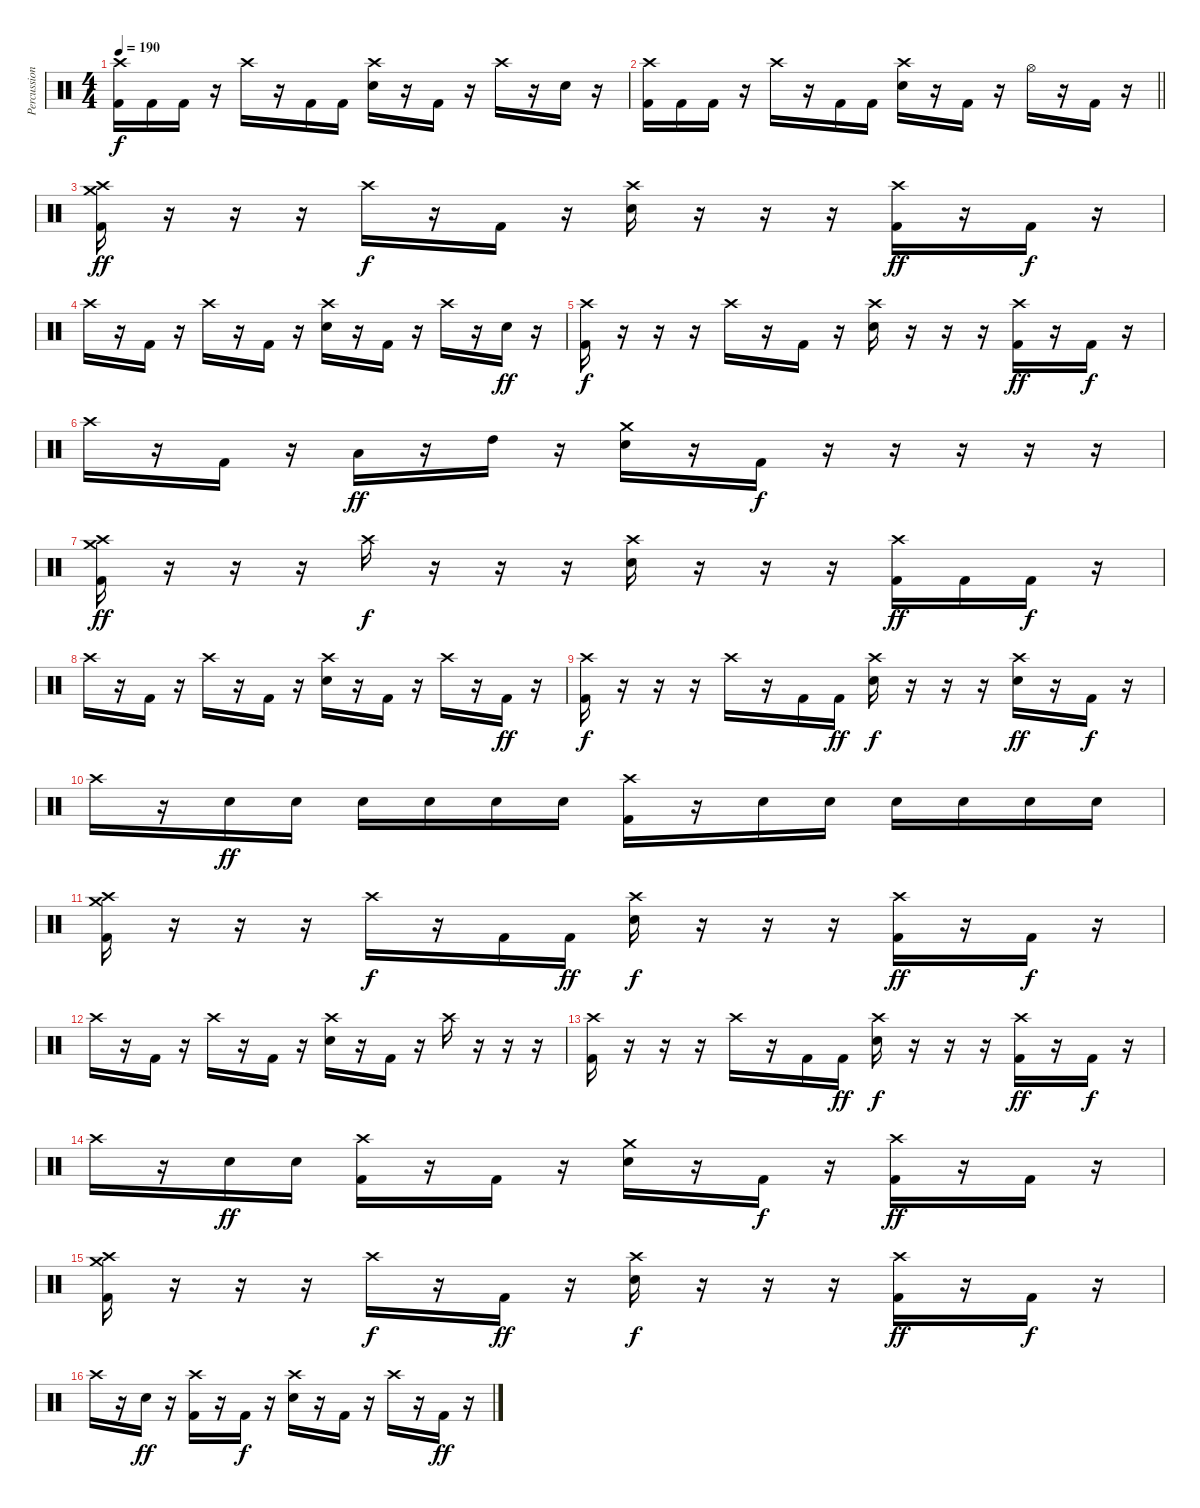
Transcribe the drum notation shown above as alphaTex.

\track ("Percussion" "Percussion") {instrument percussion}
\staff {score}
\articulation defaults
\ts (4 4)
\tempo 190
\clef neutral
\ks c
("Crash high (hit)" "Kick (hit) 2").16{dy f} "Kick (hit) 2".16 "Kick (hit) 2".16 r.16 "Crash high (hit)".16 r.16 "Kick (hit) 2".16 "Kick (hit) 2".16 ("Crash high (hit)" "Snare (hit) 2").16 r.16 "Kick (hit) 2".16 r.16 "Crash high (hit)".16 r.16 "Snare (hit) 2".16 r.16 |
\barLineRight lightlight
("Crash high (hit)" "Kick (hit) 2").16 "Kick (hit) 2".16 "Kick (hit) 2".16 r.16 "Crash high (hit)".16 r.16 "Kick (hit) 2".16 "Kick (hit) 2".16 ("Crash high (hit)" "Snare (hit) 2").16 r.16 "Kick (hit) 2".16 r.16 "Hi-Hat (open)".16 r.16 "Kick (hit) 2".16 r.16 |
\section ("" "")
("Crash high (hit)" "Crash medium (hit)" "Kick (hit) 2").16{dy ff} r.16 r.16 r.16 "Crash high (hit)".16{dy f} r.16 "Kick (hit) 2".16 r.16 ("Crash high (hit)" "Snare (hit) 2").16 r.16 r.16 r.16 ("Crash high (hit)" "Kick (hit) 2").16{dy ff} r.16 "Kick (hit) 2".16{dy f} r.16 |
"Crash high (hit)".16 r.16 "Kick (hit) 2".16 r.16 "Crash high (hit)".16 r.16 "Kick (hit) 2".16 r.16 ("Crash high (hit)" "Snare (hit) 2").16 r.16 "Kick (hit) 2".16 r.16 "Crash high (hit)".16 r.16 "Snare (hit) 2".16{dy ff} r.16 |
("Crash high (hit)" "Kick (hit) 2").16{dy f} r.16 r.16 r.16 "Crash high (hit)".16 r.16 "Kick (hit) 2".16 r.16 ("Crash high (hit)" "Snare (hit) 2").16 r.16 r.16 r.16 ("Crash high (hit)" "Kick (hit) 2").16{dy ff} r.16 "Kick (hit) 2".16{dy f} r.16 |
"Crash high (hit)".16 r.16 "Kick (hit) 2".16 r.16 "Low Tom (hit)".16{dy ff} r.16 "High Tom (hit)".16 r.16 ("Crash medium (hit)" "Snare (hit) 2").16 r.16 "Kick (hit) 2".16{dy f} r.16 r.16 r.16 r.16 r.16 |
("Crash high (hit)" "Crash medium (hit)" "Kick (hit) 2").16{dy ff} r.16 r.16 r.16 "Crash high (hit)".16{dy f} r.16 r.16 r.16 ("Crash high (hit)" "Snare (hit) 2").16 r.16 r.16 r.16 ("Crash high (hit)" "Kick (hit) 2").16{dy ff} "Kick (hit) 2".16 "Kick (hit) 2".16{dy f} r.16 |
"Crash high (hit)".16 r.16 "Kick (hit) 2".16 r.16 "Crash high (hit)".16 r.16 "Kick (hit) 2".16 r.16 ("Crash high (hit)" "Snare (hit) 2").16 r.16 "Kick (hit) 2".16 r.16 "Crash high (hit)".16 r.16 "Kick (hit) 2".16{dy ff} r.16 |
("Crash high (hit)" "Kick (hit) 2").16{dy f} r.16 r.16 r.16 "Crash high (hit)".16 r.16 "Kick (hit) 2".16 "Kick (hit) 2".16{dy ff} ("Crash high (hit)" "Snare (hit) 2").16{dy f} r.16 r.16 r.16 ("Crash high (hit)" "Snare (hit) 2").16{dy ff} r.16 "Kick (hit) 2".16{dy f} r.16 |
"Crash high (hit)".16 r.16 "Snare (hit) 2".16{dy ff} "Snare (hit) 2".16 "Snare (hit) 2".16 "Snare (hit) 2".16 "Snare (hit) 2".16 "Snare (hit) 2".16 ("Crash high (hit)" "Kick (hit) 2").16 r.16 "Snare (hit) 2".16 "Snare (hit) 2".16 "Snare (hit) 2".16 "Snare (hit) 2".16 "Snare (hit) 2".16 "Snare (hit) 2".16 |
("Crash high (hit)" "Crash medium (hit)" "Kick (hit) 2").16 r.16 r.16 r.16 "Crash high (hit)".16{dy f} r.16 "Kick (hit) 2".16 "Kick (hit) 2".16{dy ff} ("Crash high (hit)" "Snare (hit) 2").16{dy f} r.16 r.16 r.16 ("Crash high (hit)" "Kick (hit) 2").16{dy ff} r.16 "Kick (hit) 2".16{dy f} r.16 |
"Crash high (hit)".16 r.16 "Kick (hit) 2".16 r.16 "Crash high (hit)".16 r.16 "Kick (hit) 2".16 r.16 ("Crash high (hit)" "Snare (hit) 2").16 r.16 "Kick (hit) 2".16 r.16 "Crash high (hit)".16 r.16 r.16 r.16 |
("Crash high (hit)" "Kick (hit) 2").16 r.16 r.16 r.16 "Crash high (hit)".16 r.16 "Kick (hit) 2".16 "Kick (hit) 2".16{dy ff} ("Crash high (hit)" "Snare (hit) 2").16{dy f} r.16 r.16 r.16 ("Crash high (hit)" "Kick (hit) 2").16{dy ff} r.16 "Kick (hit) 2".16{dy f} r.16 |
"Crash high (hit)".16 r.16 "Snare (hit) 2".16{dy ff} "Snare (hit) 2".16 ("Crash high (hit)" "Kick (hit) 2").16 r.16 "Kick (hit) 2".16 r.16 ("Crash medium (hit)" "Snare (hit) 2").16 r.16 "Kick (hit) 2".16{dy f} r.16 ("Crash high (hit)" "Kick (hit) 2").16{dy ff} r.16 "Kick (hit) 2".16 r.16 |
("Crash high (hit)" "Crash medium (hit)" "Kick (hit) 2").16 r.16 r.16 r.16 "Crash high (hit)".16{dy f} r.16 "Kick (hit) 2".16{dy ff} r.16 ("Crash high (hit)" "Snare (hit) 2").16{dy f} r.16 r.16 r.16 ("Crash high (hit)" "Kick (hit) 2").16{dy ff} r.16 "Kick (hit) 2".16{dy f} r.16 |
"Crash high (hit)".16 r.16 "Snare (hit) 2".16{dy ff} r.16 ("Crash high (hit)" "Kick (hit) 2").16 r.16 "Kick (hit) 2".16{dy f} r.16 ("Crash high (hit)" "Snare (hit) 2").16 r.16 "Kick (hit) 2".16 r.16 "Crash high (hit)".16 r.16 "Kick (hit) 2".16{dy ff} r.16
